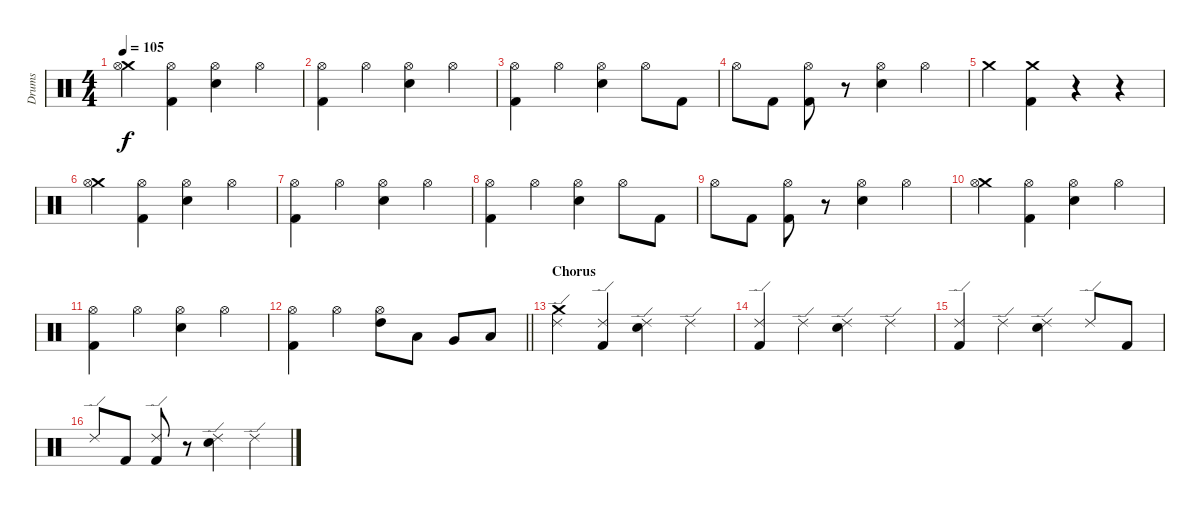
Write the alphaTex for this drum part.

\track ("Drums" "Drums") {instrument percussion}
\staff {score}
\articulation defaults
\ts (4 4)
\tempo 105
\clef neutral
\ks c
("Crash medium (hit)" "Hi-Hat (open)").4{dy f} ("Hi-Hat (open)" "Kick (hit) 2").4 ("Hi-Hat (open)" "Electric Snare (hit)").4 "Hi-Hat (open)".4 |
("Hi-Hat (open)" "Kick (hit) 2").4 "Hi-Hat (open)".4 ("Hi-Hat (open)" "Electric Snare (hit)").4 "Hi-Hat (open)".4 |
("Hi-Hat (open)" "Kick (hit) 2").4 "Hi-Hat (open)".4 ("Hi-Hat (open)" "Electric Snare (hit)").4 "Hi-Hat (open)".8 "Kick (hit) 2".8 |
"Hi-Hat (open)".8 "Kick (hit) 2".8 ("Hi-Hat (open)" "Kick (hit) 2").8 r.8 ("Hi-Hat (open)" "Electric Snare (hit)").4 "Hi-Hat (open)".4 |
"Crash medium (hit)".4 ("Crash medium (hit)" "Kick (hit) 2").4 r.4 r.4 |
("Crash medium (hit)" "Hi-Hat (open)").4 ("Hi-Hat (open)" "Kick (hit) 2").4 ("Hi-Hat (open)" "Electric Snare (hit)").4 "Hi-Hat (open)".4 |
("Hi-Hat (open)" "Kick (hit) 2").4 "Hi-Hat (open)".4 ("Hi-Hat (open)" "Electric Snare (hit)").4 "Hi-Hat (open)".4 |
("Hi-Hat (open)" "Kick (hit) 2").4 "Hi-Hat (open)".4 ("Hi-Hat (open)" "Electric Snare (hit)").4 "Hi-Hat (open)".8 "Kick (hit) 2".8 |
"Hi-Hat (open)".8 "Kick (hit) 2".8 ("Hi-Hat (open)" "Kick (hit) 2").8 r.8 ("Hi-Hat (open)" "Electric Snare (hit)").4 "Hi-Hat (open)".4 |
("Crash medium (hit)" "Hi-Hat (open)").4 ("Hi-Hat (open)" "Kick (hit) 2").4 ("Hi-Hat (open)" "Electric Snare (hit)").4 "Hi-Hat (open)".4 |
("Hi-Hat (open)" "Kick (hit) 2").4 "Hi-Hat (open)".4 ("Hi-Hat (open)" "Electric Snare (hit)").4 "Hi-Hat (open)".4 |
\barLineRight lightlight
("Hi-Hat (open)" "Kick (hit) 2").4 "Hi-Hat (open)".4 ("Hi-Hat (open)" "High Tom (hit)").8 "Low Tom (hit)".8 "Very Low Tom (hit)".8 "Low Floor Tom (hit)".8 |
\section ("" "Chorus")
("Crash medium (hit)" "Ride (edge) 2").4 ("Ride (edge) 2" "Kick (hit) 2").4 ("Ride (edge) 2" "Electric Snare (hit)").4 "Ride (edge) 2".4 |
("Ride (edge) 2" "Kick (hit) 2").4 "Ride (edge) 2".4 ("Ride (edge) 2" "Electric Snare (hit)").4 "Ride (edge) 2".4 |
("Ride (edge) 2" "Kick (hit) 2").4 "Ride (edge) 2".4 ("Ride (edge) 2" "Electric Snare (hit)").4 "Ride (edge) 2".8 "Kick (hit) 2".8 |
"Ride (edge) 2".8 "Kick (hit) 2".8 ("Ride (edge) 2" "Kick (hit) 2").8 r.8 ("Ride (edge) 2" "Electric Snare (hit)").4 "Ride (edge) 2".4
